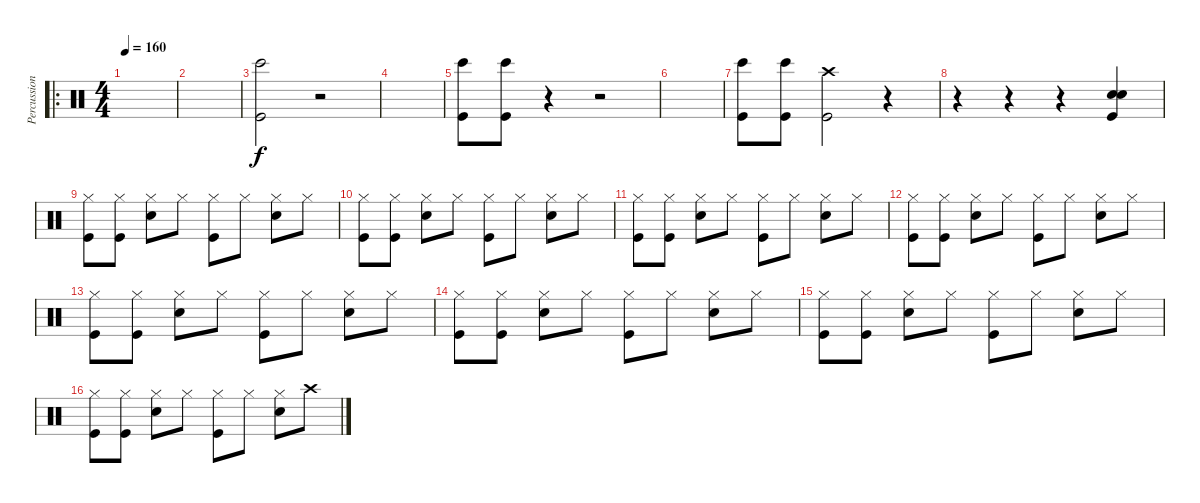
\track ("Percussion" "Percussion") {instrument percussion}
\staff {score}
\articulation defaults
\ro
\ts (4 4)
\tempo 160
\clef neutral
\ks c
|
|
("Kick (hit)" "Bongo High (hit)").2 r.2 |
|
("Kick (hit)" "Bongo High (hit)").8 ("Kick (hit)" "Bongo High (hit)").8 r.4 r.2 |
|
("Kick (hit)" "Bongo High (hit)").8 ("Kick (hit)" "Bongo High (hit)").8 ("Kick (hit)" "Crash high (hit)").2 r.4 |
r.4 r.4 r.4 ("Kick (hit)" "Snare (hit) 2" "Electric Snare (hit)").4 |
("Hi-Hat (closed)" "Kick (hit)").8 ("Hi-Hat (closed)" "Kick (hit)").8 ("Hi-Hat (closed)" "Snare (hit) 2").8 "Hi-Hat (closed)".8 ("Hi-Hat (closed)" "Kick (hit)").8 "Hi-Hat (closed)".8 ("Hi-Hat (closed)" "Snare (hit) 2").8 "Hi-Hat (closed)".8 |
("Hi-Hat (closed)" "Kick (hit)").8 ("Hi-Hat (closed)" "Kick (hit)").8 ("Hi-Hat (closed)" "Snare (hit) 2").8 "Hi-Hat (closed)".8 ("Hi-Hat (closed)" "Kick (hit)").8 "Hi-Hat (closed)".8 ("Hi-Hat (closed)" "Snare (hit) 2").8 "Hi-Hat (closed)".8 |
("Hi-Hat (closed)" "Kick (hit)").8 ("Hi-Hat (closed)" "Kick (hit)").8 ("Hi-Hat (closed)" "Snare (hit) 2").8 "Hi-Hat (closed)".8 ("Hi-Hat (closed)" "Kick (hit)").8 "Hi-Hat (closed)".8 ("Hi-Hat (closed)" "Snare (hit) 2").8 "Hi-Hat (closed)".8 |
("Hi-Hat (closed)" "Kick (hit)").8 ("Hi-Hat (closed)" "Kick (hit)").8 ("Hi-Hat (closed)" "Snare (hit) 2").8 "Hi-Hat (closed)".8 ("Hi-Hat (closed)" "Kick (hit)").8 "Hi-Hat (closed)".8 ("Hi-Hat (closed)" "Snare (hit) 2").8 "Hi-Hat (closed)".8 |
("Hi-Hat (closed)" "Kick (hit)").8 ("Hi-Hat (closed)" "Kick (hit)").8 ("Hi-Hat (closed)" "Snare (hit) 2").8 "Hi-Hat (closed)".8 ("Hi-Hat (closed)" "Kick (hit)").8 "Hi-Hat (closed)".8 ("Hi-Hat (closed)" "Snare (hit) 2").8 "Hi-Hat (closed)".8 |
("Hi-Hat (closed)" "Kick (hit)").8 ("Hi-Hat (closed)" "Kick (hit)").8 ("Hi-Hat (closed)" "Snare (hit) 2").8 "Hi-Hat (closed)".8 ("Hi-Hat (closed)" "Kick (hit)").8 "Hi-Hat (closed)".8 ("Hi-Hat (closed)" "Snare (hit) 2").8 "Hi-Hat (closed)".8 |
("Hi-Hat (closed)" "Kick (hit)").8 ("Hi-Hat (closed)" "Kick (hit)").8 ("Hi-Hat (closed)" "Snare (hit) 2").8 "Hi-Hat (closed)".8 ("Hi-Hat (closed)" "Kick (hit)").8 "Hi-Hat (closed)".8 ("Hi-Hat (closed)" "Snare (hit) 2").8 "Hi-Hat (closed)".8 |
("Hi-Hat (closed)" "Kick (hit)").8 ("Hi-Hat (closed)" "Kick (hit)").8 ("Hi-Hat (closed)" "Snare (hit) 2").8 "Hi-Hat (closed)".8 ("Hi-Hat (closed)" "Kick (hit)").8 "Hi-Hat (closed)".8 ("Hi-Hat (closed)" "Snare (hit) 2").8 "Crash high (hit)".8
